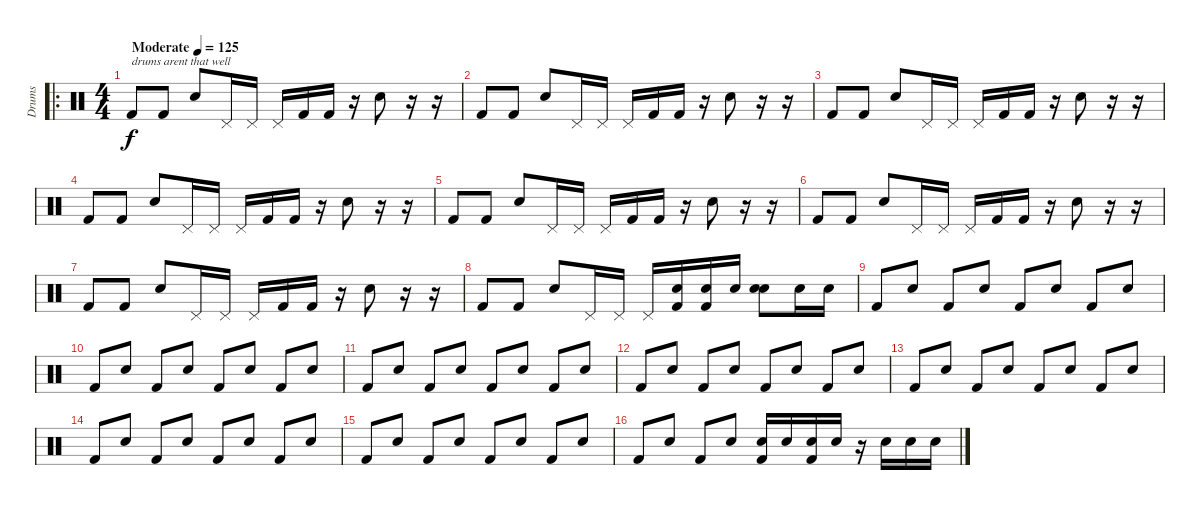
\track ("Drums" "Drums") {instrument percussion}
\staff {score}
\articulation defaults
\ro
\ts (4 4)
\tempo (125 "Moderate")
\clef neutral
\ks c "Kick (hit) 2".8{txt "drums arent that well" dy f} "Kick (hit) 2".8 "Snare (hit) 2".8 "Pedal Hi-Hat (hit)".16 "Pedal Hi-Hat (hit)".16 "Pedal Hi-Hat (hit)".16 "Kick (hit) 2".16 "Kick (hit) 2".16
r.16 "Snare (hit) 2".8 r.16 r.16 |
"Kick (hit) 2".8 "Kick (hit) 2".8 "Snare (hit) 2".8 "Pedal Hi-Hat (hit)".16 "Pedal Hi-Hat (hit)".16 "Pedal Hi-Hat (hit)".16 "Kick (hit) 2".16 "Kick (hit) 2".16 r.16 "Snare (hit) 2".8 r.16 r.16 |
"Kick (hit) 2".8 "Kick (hit) 2".8 "Snare (hit) 2".8 "Pedal Hi-Hat (hit)".16 "Pedal Hi-Hat (hit)".16 "Pedal Hi-Hat (hit)".16 "Kick (hit) 2".16 "Kick (hit) 2".16 r.16 "Snare (hit) 2".8 r.16 r.16 |
"Kick (hit) 2".8 "Kick (hit) 2".8 "Snare (hit) 2".8 "Pedal Hi-Hat (hit)".16 "Pedal Hi-Hat (hit)".16 "Pedal Hi-Hat (hit)".16 "Kick (hit) 2".16 "Kick (hit) 2".16 r.16 "Snare (hit) 2".8 r.16 r.16 |
"Kick (hit) 2".8 "Kick (hit) 2".8 "Snare (hit) 2".8 "Pedal Hi-Hat (hit)".16 "Pedal Hi-Hat (hit)".16 "Pedal Hi-Hat (hit)".16 "Kick (hit) 2".16 "Kick (hit) 2".16 r.16 "Snare (hit) 2".8 r.16 r.16 |
"Kick (hit) 2".8 "Kick (hit) 2".8 "Snare (hit) 2".8 "Pedal Hi-Hat (hit)".16 "Pedal Hi-Hat (hit)".16 "Pedal Hi-Hat (hit)".16 "Kick (hit) 2".16 "Kick (hit) 2".16 r.16 "Snare (hit) 2".8 r.16 r.16 |
"Kick (hit) 2".8 "Kick (hit) 2".8 "Snare (hit) 2".8 "Pedal Hi-Hat (hit)".16 "Pedal Hi-Hat (hit)".16 "Pedal Hi-Hat (hit)".16 "Kick (hit) 2".16 "Kick (hit) 2".16 r.16 "Snare (hit) 2".8 r.16 r.16 |
"Kick (hit) 2".8 "Kick (hit) 2".8 "Snare (hit) 2".8 "Pedal Hi-Hat (hit)".16 "Pedal Hi-Hat (hit)".16 "Pedal Hi-Hat (hit)".16 ("Snare (hit) 2" "Kick (hit) 2").16 ("Snare (hit) 2" "Kick (hit) 2").16 "Snare (hit) 2".16 ("Snare (hit) 2" "Snare (hit) 2").8 "Snare (hit) 2".16 "Snare (hit) 2".16 |
"Kick (hit) 2".8 "Snare (hit) 2".8 "Kick (hit) 2".8 "Snare (hit) 2".8 "Kick (hit) 2".8 "Snare (hit) 2".8 "Kick (hit) 2".8 "Snare (hit) 2".8 |
"Kick (hit) 2".8 "Snare (hit) 2".8 "Kick (hit) 2".8 "Snare (hit) 2".8 "Kick (hit) 2".8 "Snare (hit) 2".8 "Kick (hit) 2".8 "Snare (hit) 2".8 |
"Kick (hit) 2".8 "Snare (hit) 2".8 "Kick (hit) 2".8 "Snare (hit) 2".8 "Kick (hit) 2".8 "Snare (hit) 2".8 "Kick (hit) 2".8 "Snare (hit) 2".8 |
"Kick (hit) 2".8 "Snare (hit) 2".8 "Kick (hit) 2".8 "Snare (hit) 2".8 "Kick (hit) 2".8 "Snare (hit) 2".8 "Kick (hit) 2".8 "Snare (hit) 2".8 |
"Kick (hit) 2".8 "Snare (hit) 2".8 "Kick (hit) 2".8 "Snare (hit) 2".8 "Kick (hit) 2".8 "Snare (hit) 2".8 "Kick (hit) 2".8 "Snare (hit) 2".8 |
"Kick (hit) 2".8 "Snare (hit) 2".8 "Kick (hit) 2".8 "Snare (hit) 2".8 "Kick (hit) 2".8 "Snare (hit) 2".8 "Kick (hit) 2".8 "Snare (hit) 2".8 |
"Kick (hit) 2".8 "Snare (hit) 2".8 "Kick (hit) 2".8 "Snare (hit) 2".8 "Kick (hit) 2".8 "Snare (hit) 2".8 "Kick (hit) 2".8 "Snare (hit) 2".8 |
"Kick (hit) 2".8 "Snare (hit) 2".8 "Kick (hit) 2".8 "Snare (hit) 2".8 ("Snare (hit) 2" "Kick (hit) 2").16 "Snare (hit) 2".16 ("Snare (hit) 2" "Kick (hit) 2").16 "Snare (hit) 2".16 r.16 "Snare (hit) 2".16 "Snare (hit) 2".16 "Snare (hit) 2".16
